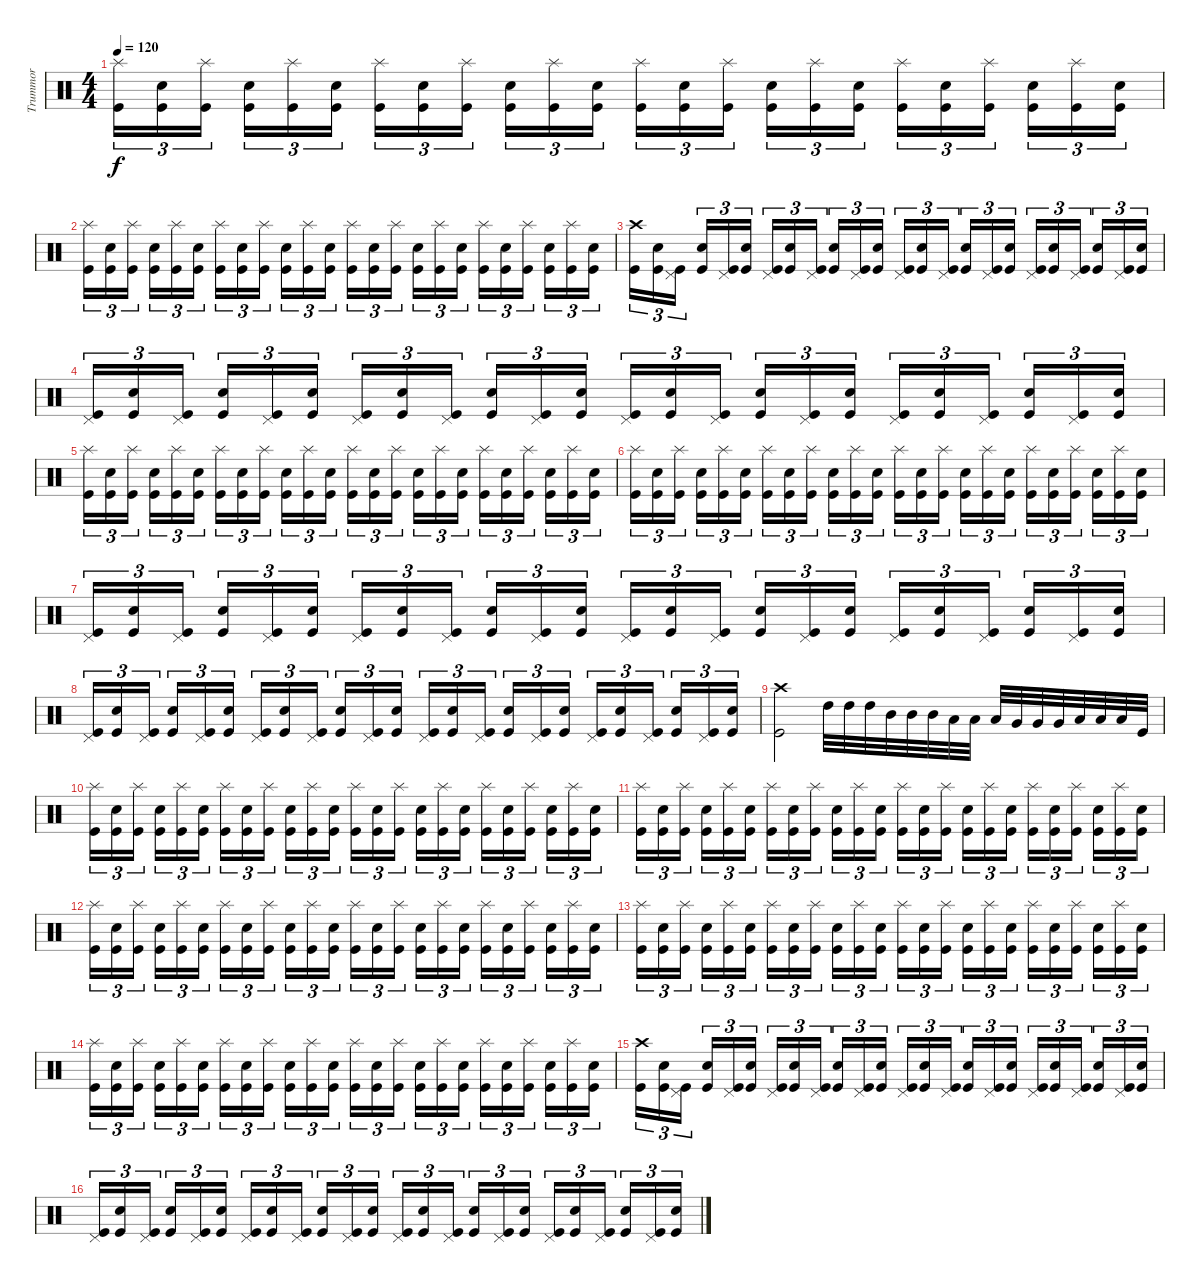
\track ("Trummor" "Trummor") {instrument percussion}
\staff {score}
\articulation defaults
\ts (4 4)
\tempo 120
\clef neutral
\ks c
("Splash (hit)" "Kick (hit)").16{tu (3 2) dy f} ("Electric Snare (hit)" "Kick (hit)").16{tu (3 2)} ("Splash (hit)" "Kick (hit)").16{tu (3 2)} ("Electric Snare (hit)" "Kick (hit)").16{tu (3 2)} ("Splash (hit)" "Kick (hit)").16{tu (3 2)} ("Electric Snare (hit)" "Kick (hit)").16{tu (3 2)} ("Splash (hit)" "Kick (hit)").16{tu (3 2)} ("Electric Snare (hit)" "Kick (hit)").16{tu (3 2)} ("Splash (hit)" "Kick (hit)").16{tu (3 2)} ("Electric Snare (hit)" "Kick (hit)").16{tu (3 2)} ("Splash (hit)" "Kick (hit)").16{tu (3 2)} ("Electric Snare (hit)" "Kick (hit)").16{tu (3 2)} ("Splash (hit)" "Kick (hit)").16{tu (3 2)} ("Electric Snare (hit)" "Kick (hit)").16{tu (3 2)} ("Splash (hit)" "Kick (hit)").16{tu (3 2)} ("Electric Snare (hit)" "Kick (hit)").16{tu (3 2)} ("Splash (hit)" "Kick (hit)").16{tu (3 2)} ("Electric Snare (hit)" "Kick (hit)").16{tu (3 2)} ("Splash (hit)" "Kick (hit)").16{tu (3 2)} ("Electric Snare (hit)" "Kick (hit)").16{tu (3 2)} ("Splash (hit)" "Kick (hit)").16{tu (3 2)} ("Electric Snare (hit)" "Kick (hit)").16{tu (3 2)} ("Splash (hit)" "Kick (hit)").16{tu (3 2)} ("Electric Snare (hit)" "Kick (hit)").16{tu (3 2)} |
("Splash (hit)" "Kick (hit)").16{tu (3 2)} ("Electric Snare (hit)" "Kick (hit)").16{tu (3 2)} ("Splash (hit)" "Kick (hit)").16{tu (3 2)} ("Electric Snare (hit)" "Kick (hit)").16{tu (3 2)} ("Splash (hit)" "Kick (hit)").16{tu (3 2)} ("Electric Snare (hit)" "Kick (hit)").16{tu (3 2)} ("Splash (hit)" "Kick (hit)").16{tu (3 2)} ("Electric Snare (hit)" "Kick (hit)").16{tu (3 2)} ("Splash (hit)" "Kick (hit)").16{tu (3 2)} ("Electric Snare (hit)" "Kick (hit)").16{tu (3 2)} ("Splash (hit)" "Kick (hit)").16{tu (3 2)} ("Electric Snare (hit)" "Kick (hit)").16{tu (3 2)} ("Splash (hit)" "Kick (hit)").16{tu (3 2)} ("Electric Snare (hit)" "Kick (hit)").16{tu (3 2)} ("Splash (hit)" "Kick (hit)").16{tu (3 2)} ("Electric Snare (hit)" "Kick (hit)").16{tu (3 2)} ("Splash (hit)" "Kick (hit)").16{tu (3 2)} ("Electric Snare (hit)" "Kick (hit)").16{tu (3 2)} ("Splash (hit)" "Kick (hit)").16{tu (3 2)} ("Electric Snare (hit)" "Kick (hit)").16{tu (3 2)} ("Splash (hit)" "Kick (hit)").16{tu (3 2)} ("Electric Snare (hit)" "Kick (hit)").16{tu (3 2)} ("Splash (hit)" "Kick (hit)").16{tu (3 2)} ("Electric Snare (hit)" "Kick (hit)").16{tu (3 2)} |
("Crash high (hit)" "Kick (hit)").16{tu (3 2)} ("Electric Snare (hit)" "Kick (hit)").16{tu (3 2)} ("Pedal Hi-Hat (hit)" "Kick (hit)").16{tu (3 2)} ("Electric Snare (hit)" "Kick (hit)").16{tu (3 2)} ("Pedal Hi-Hat (hit)" "Kick (hit)").16{tu (3 2)} ("Electric Snare (hit)" "Kick (hit)").16{tu (3 2)} ("Pedal Hi-Hat (hit)" "Kick (hit)").16{tu (3 2)} ("Electric Snare (hit)" "Kick (hit)").16{tu (3 2)} ("Pedal Hi-Hat (hit)" "Kick (hit)").16{tu (3 2)} ("Electric Snare (hit)" "Kick (hit)").16{tu (3 2)} ("Pedal Hi-Hat (hit)" "Kick (hit)").16{tu (3 2)} ("Electric Snare (hit)" "Kick (hit)").16{tu (3 2)} ("Pedal Hi-Hat (hit)" "Kick (hit)").16{tu (3 2)} ("Electric Snare (hit)" "Kick (hit)").16{tu (3 2)} ("Pedal Hi-Hat (hit)" "Kick (hit)").16{tu (3 2)} ("Electric Snare (hit)" "Kick (hit)").16{tu (3 2)} ("Pedal Hi-Hat (hit)" "Kick (hit)").16{tu (3 2)} ("Electric Snare (hit)" "Kick (hit)").16{tu (3 2)} ("Pedal Hi-Hat (hit)" "Kick (hit)").16{tu (3 2)} ("Electric Snare (hit)" "Kick (hit)").16{tu (3 2)} ("Pedal Hi-Hat (hit)" "Kick (hit)").16{tu (3 2)} ("Electric Snare (hit)" "Kick (hit)").16{tu (3 2)} ("Pedal Hi-Hat (hit)" "Kick (hit)").16{tu (3 2)} ("Electric Snare (hit)" "Kick (hit)").16{tu (3 2)} |
("Pedal Hi-Hat (hit)" "Kick (hit)").16{tu (3 2)} ("Electric Snare (hit)" "Kick (hit)").16{tu (3 2)} ("Pedal Hi-Hat (hit)" "Kick (hit)").16{tu (3 2)} ("Electric Snare (hit)" "Kick (hit)").16{tu (3 2)} ("Pedal Hi-Hat (hit)" "Kick (hit)").16{tu (3 2)} ("Electric Snare (hit)" "Kick (hit)").16{tu (3 2)} ("Pedal Hi-Hat (hit)" "Kick (hit)").16{tu (3 2)} ("Electric Snare (hit)" "Kick (hit)").16{tu (3 2)} ("Pedal Hi-Hat (hit)" "Kick (hit)").16{tu (3 2)} ("Electric Snare (hit)" "Kick (hit)").16{tu (3 2)} ("Pedal Hi-Hat (hit)" "Kick (hit)").16{tu (3 2)} ("Electric Snare (hit)" "Kick (hit)").16{tu (3 2)} ("Pedal Hi-Hat (hit)" "Kick (hit)").16{tu (3 2)} ("Electric Snare (hit)" "Kick (hit)").16{tu (3 2)} ("Pedal Hi-Hat (hit)" "Kick (hit)").16{tu (3 2)} ("Electric Snare (hit)" "Kick (hit)").16{tu (3 2)} ("Pedal Hi-Hat (hit)" "Kick (hit)").16{tu (3 2)} ("Electric Snare (hit)" "Kick (hit)").16{tu (3 2)} ("Pedal Hi-Hat (hit)" "Kick (hit)").16{tu (3 2)} ("Electric Snare (hit)" "Kick (hit)").16{tu (3 2)} ("Pedal Hi-Hat (hit)" "Kick (hit)").16{tu (3 2)} ("Electric Snare (hit)" "Kick (hit)").16{tu (3 2)} ("Pedal Hi-Hat (hit)" "Kick (hit)").16{tu (3 2)} ("Electric Snare (hit)" "Kick (hit)").16{tu (3 2)} |
("Splash (hit)" "Kick (hit)").16{tu (3 2)} ("Electric Snare (hit)" "Kick (hit)").16{tu (3 2)} ("Splash (hit)" "Kick (hit)").16{tu (3 2)} ("Electric Snare (hit)" "Kick (hit)").16{tu (3 2)} ("Splash (hit)" "Kick (hit)").16{tu (3 2)} ("Electric Snare (hit)" "Kick (hit)").16{tu (3 2)} ("Splash (hit)" "Kick (hit)").16{tu (3 2)} ("Electric Snare (hit)" "Kick (hit)").16{tu (3 2)} ("Splash (hit)" "Kick (hit)").16{tu (3 2)} ("Electric Snare (hit)" "Kick (hit)").16{tu (3 2)} ("Splash (hit)" "Kick (hit)").16{tu (3 2)} ("Electric Snare (hit)" "Kick (hit)").16{tu (3 2)} ("Splash (hit)" "Kick (hit)").16{tu (3 2)} ("Electric Snare (hit)" "Kick (hit)").16{tu (3 2)} ("Splash (hit)" "Kick (hit)").16{tu (3 2)} ("Electric Snare (hit)" "Kick (hit)").16{tu (3 2)} ("Splash (hit)" "Kick (hit)").16{tu (3 2)} ("Electric Snare (hit)" "Kick (hit)").16{tu (3 2)} ("Splash (hit)" "Kick (hit)").16{tu (3 2)} ("Electric Snare (hit)" "Kick (hit)").16{tu (3 2)} ("Splash (hit)" "Kick (hit)").16{tu (3 2)} ("Electric Snare (hit)" "Kick (hit)").16{tu (3 2)} ("Splash (hit)" "Kick (hit)").16{tu (3 2)} ("Electric Snare (hit)" "Kick (hit)").16{tu (3 2)} |
("Splash (hit)" "Kick (hit)").16{tu (3 2)} ("Electric Snare (hit)" "Kick (hit)").16{tu (3 2)} ("Splash (hit)" "Kick (hit)").16{tu (3 2)} ("Electric Snare (hit)" "Kick (hit)").16{tu (3 2)} ("Splash (hit)" "Kick (hit)").16{tu (3 2)} ("Electric Snare (hit)" "Kick (hit)").16{tu (3 2)} ("Splash (hit)" "Kick (hit)").16{tu (3 2)} ("Electric Snare (hit)" "Kick (hit)").16{tu (3 2)} ("Splash (hit)" "Kick (hit)").16{tu (3 2)} ("Electric Snare (hit)" "Kick (hit)").16{tu (3 2)} ("Splash (hit)" "Kick (hit)").16{tu (3 2)} ("Electric Snare (hit)" "Kick (hit)").16{tu (3 2)} ("Splash (hit)" "Kick (hit)").16{tu (3 2)} ("Electric Snare (hit)" "Kick (hit)").16{tu (3 2)} ("Splash (hit)" "Kick (hit)").16{tu (3 2)} ("Electric Snare (hit)" "Kick (hit)").16{tu (3 2)} ("Splash (hit)" "Kick (hit)").16{tu (3 2)} ("Electric Snare (hit)" "Kick (hit)").16{tu (3 2)} ("Splash (hit)" "Kick (hit)").16{tu (3 2)} ("Electric Snare (hit)" "Kick (hit)").16{tu (3 2)} ("Splash (hit)" "Kick (hit)").16{tu (3 2)} ("Electric Snare (hit)" "Kick (hit)").16{tu (3 2)} ("Splash (hit)" "Kick (hit)").16{tu (3 2)} ("Electric Snare (hit)" "Kick (hit)").16{tu (3 2)} |
("Pedal Hi-Hat (hit)" "Kick (hit)").16{tu (3 2)} ("Electric Snare (hit)" "Kick (hit)").16{tu (3 2)} ("Pedal Hi-Hat (hit)" "Kick (hit)").16{tu (3 2)} ("Electric Snare (hit)" "Kick (hit)").16{tu (3 2)} ("Pedal Hi-Hat (hit)" "Kick (hit)").16{tu (3 2)} ("Electric Snare (hit)" "Kick (hit)").16{tu (3 2)} ("Pedal Hi-Hat (hit)" "Kick (hit)").16{tu (3 2)} ("Electric Snare (hit)" "Kick (hit)").16{tu (3 2)} ("Pedal Hi-Hat (hit)" "Kick (hit)").16{tu (3 2)} ("Electric Snare (hit)" "Kick (hit)").16{tu (3 2)} ("Pedal Hi-Hat (hit)" "Kick (hit)").16{tu (3 2)} ("Electric Snare (hit)" "Kick (hit)").16{tu (3 2)} ("Pedal Hi-Hat (hit)" "Kick (hit)").16{tu (3 2)} ("Electric Snare (hit)" "Kick (hit)").16{tu (3 2)} ("Pedal Hi-Hat (hit)" "Kick (hit)").16{tu (3 2)} ("Electric Snare (hit)" "Kick (hit)").16{tu (3 2)} ("Pedal Hi-Hat (hit)" "Kick (hit)").16{tu (3 2)} ("Electric Snare (hit)" "Kick (hit)").16{tu (3 2)} ("Pedal Hi-Hat (hit)" "Kick (hit)").16{tu (3 2)} ("Electric Snare (hit)" "Kick (hit)").16{tu (3 2)} ("Pedal Hi-Hat (hit)" "Kick (hit)").16{tu (3 2)} ("Electric Snare (hit)" "Kick (hit)").16{tu (3 2)} ("Pedal Hi-Hat (hit)" "Kick (hit)").16{tu (3 2)} ("Electric Snare (hit)" "Kick (hit)").16{tu (3 2)} |
("Pedal Hi-Hat (hit)" "Kick (hit)").16{tu (3 2)} ("Electric Snare (hit)" "Kick (hit)").16{tu (3 2)} ("Pedal Hi-Hat (hit)" "Kick (hit)").16{tu (3 2)} ("Electric Snare (hit)" "Kick (hit)").16{tu (3 2)} ("Pedal Hi-Hat (hit)" "Kick (hit)").16{tu (3 2)} ("Electric Snare (hit)" "Kick (hit)").16{tu (3 2)} ("Pedal Hi-Hat (hit)" "Kick (hit)").16{tu (3 2)} ("Electric Snare (hit)" "Kick (hit)").16{tu (3 2)} ("Pedal Hi-Hat (hit)" "Kick (hit)").16{tu (3 2)} ("Electric Snare (hit)" "Kick (hit)").16{tu (3 2)} ("Pedal Hi-Hat (hit)" "Kick (hit)").16{tu (3 2)} ("Electric Snare (hit)" "Kick (hit)").16{tu (3 2)} ("Pedal Hi-Hat (hit)" "Kick (hit)").16{tu (3 2)} ("Electric Snare (hit)" "Kick (hit)").16{tu (3 2)} ("Pedal Hi-Hat (hit)" "Kick (hit)").16{tu (3 2)} ("Electric Snare (hit)" "Kick (hit)").16{tu (3 2)} ("Pedal Hi-Hat (hit)" "Kick (hit)").16{tu (3 2)} ("Electric Snare (hit)" "Kick (hit)").16{tu (3 2)} ("Pedal Hi-Hat (hit)" "Kick (hit)").16{tu (3 2)} ("Electric Snare (hit)" "Kick (hit)").16{tu (3 2)} ("Pedal Hi-Hat (hit)" "Kick (hit)").16{tu (3 2)} ("Electric Snare (hit)" "Kick (hit)").16{tu (3 2)} ("Pedal Hi-Hat (hit)" "Kick (hit)").16{tu (3 2)} ("Electric Snare (hit)" "Kick (hit)").16{tu (3 2)} |
("Crash high (hit)" "Kick (hit)").2 "High Tom (hit)".32 "High Tom (hit)".32 "High Tom (hit)".32 "Mid Tom (hit)".32 "Mid Tom (hit)".32 "Mid Tom (hit)".32 "Low Tom (hit)".32 "Low Tom (hit)".32 "Low Tom (hit)".32 "Very Low Tom (hit)".32 "Very Low Tom (hit)".32 "Very Low Tom (hit)".32 "Low Floor Tom (hit)".32 "Low Floor Tom (hit)".32 "Low Floor Tom (hit)".32 "Kick (hit)".32 |
("Splash (hit)" "Kick (hit)").16{tu (3 2)} ("Electric Snare (hit)" "Kick (hit)").16{tu (3 2)} ("Splash (hit)" "Kick (hit)").16{tu (3 2)} ("Electric Snare (hit)" "Kick (hit)").16{tu (3 2)} ("Splash (hit)" "Kick (hit)").16{tu (3 2)} ("Electric Snare (hit)" "Kick (hit)").16{tu (3 2)} ("Splash (hit)" "Kick (hit)").16{tu (3 2)} ("Electric Snare (hit)" "Kick (hit)").16{tu (3 2)} ("Splash (hit)" "Kick (hit)").16{tu (3 2)} ("Electric Snare (hit)" "Kick (hit)").16{tu (3 2)} ("Splash (hit)" "Kick (hit)").16{tu (3 2)} ("Electric Snare (hit)" "Kick (hit)").16{tu (3 2)} ("Splash (hit)" "Kick (hit)").16{tu (3 2)} ("Electric Snare (hit)" "Kick (hit)").16{tu (3 2)} ("Splash (hit)" "Kick (hit)").16{tu (3 2)} ("Electric Snare (hit)" "Kick (hit)").16{tu (3 2)} ("Splash (hit)" "Kick (hit)").16{tu (3 2)} ("Electric Snare (hit)" "Kick (hit)").16{tu (3 2)} ("Splash (hit)" "Kick (hit)").16{tu (3 2)} ("Electric Snare (hit)" "Kick (hit)").16{tu (3 2)} ("Splash (hit)" "Kick (hit)").16{tu (3 2)} ("Electric Snare (hit)" "Kick (hit)").16{tu (3 2)} ("Splash (hit)" "Kick (hit)").16{tu (3 2)} ("Electric Snare (hit)" "Kick (hit)").16{tu (3 2)} |
("Splash (hit)" "Kick (hit)").16{tu (3 2)} ("Electric Snare (hit)" "Kick (hit)").16{tu (3 2)} ("Splash (hit)" "Kick (hit)").16{tu (3 2)} ("Electric Snare (hit)" "Kick (hit)").16{tu (3 2)} ("Splash (hit)" "Kick (hit)").16{tu (3 2)} ("Electric Snare (hit)" "Kick (hit)").16{tu (3 2)} ("Splash (hit)" "Kick (hit)").16{tu (3 2)} ("Electric Snare (hit)" "Kick (hit)").16{tu (3 2)} ("Splash (hit)" "Kick (hit)").16{tu (3 2)} ("Electric Snare (hit)" "Kick (hit)").16{tu (3 2)} ("Splash (hit)" "Kick (hit)").16{tu (3 2)} ("Electric Snare (hit)" "Kick (hit)").16{tu (3 2)} ("Splash (hit)" "Kick (hit)").16{tu (3 2)} ("Electric Snare (hit)" "Kick (hit)").16{tu (3 2)} ("Splash (hit)" "Kick (hit)").16{tu (3 2)} ("Electric Snare (hit)" "Kick (hit)").16{tu (3 2)} ("Splash (hit)" "Kick (hit)").16{tu (3 2)} ("Electric Snare (hit)" "Kick (hit)").16{tu (3 2)} ("Splash (hit)" "Kick (hit)").16{tu (3 2)} ("Electric Snare (hit)" "Kick (hit)").16{tu (3 2)} ("Splash (hit)" "Kick (hit)").16{tu (3 2)} ("Electric Snare (hit)" "Kick (hit)").16{tu (3 2)} ("Splash (hit)" "Kick (hit)").16{tu (3 2)} ("Electric Snare (hit)" "Kick (hit)").16{tu (3 2)} |
("Splash (hit)" "Kick (hit)").16{tu (3 2)} ("Electric Snare (hit)" "Kick (hit)").16{tu (3 2)} ("Splash (hit)" "Kick (hit)").16{tu (3 2)} ("Electric Snare (hit)" "Kick (hit)").16{tu (3 2)} ("Splash (hit)" "Kick (hit)").16{tu (3 2)} ("Electric Snare (hit)" "Kick (hit)").16{tu (3 2)} ("Splash (hit)" "Kick (hit)").16{tu (3 2)} ("Electric Snare (hit)" "Kick (hit)").16{tu (3 2)} ("Splash (hit)" "Kick (hit)").16{tu (3 2)} ("Electric Snare (hit)" "Kick (hit)").16{tu (3 2)} ("Splash (hit)" "Kick (hit)").16{tu (3 2)} ("Electric Snare (hit)" "Kick (hit)").16{tu (3 2)} ("Splash (hit)" "Kick (hit)").16{tu (3 2)} ("Electric Snare (hit)" "Kick (hit)").16{tu (3 2)} ("Splash (hit)" "Kick (hit)").16{tu (3 2)} ("Electric Snare (hit)" "Kick (hit)").16{tu (3 2)} ("Splash (hit)" "Kick (hit)").16{tu (3 2)} ("Electric Snare (hit)" "Kick (hit)").16{tu (3 2)} ("Splash (hit)" "Kick (hit)").16{tu (3 2)} ("Electric Snare (hit)" "Kick (hit)").16{tu (3 2)} ("Splash (hit)" "Kick (hit)").16{tu (3 2)} ("Electric Snare (hit)" "Kick (hit)").16{tu (3 2)} ("Splash (hit)" "Kick (hit)").16{tu (3 2)} ("Electric Snare (hit)" "Kick (hit)").16{tu (3 2)} |
("Splash (hit)" "Kick (hit)").16{tu (3 2)} ("Electric Snare (hit)" "Kick (hit)").16{tu (3 2)} ("Splash (hit)" "Kick (hit)").16{tu (3 2)} ("Electric Snare (hit)" "Kick (hit)").16{tu (3 2)} ("Splash (hit)" "Kick (hit)").16{tu (3 2)} ("Electric Snare (hit)" "Kick (hit)").16{tu (3 2)} ("Splash (hit)" "Kick (hit)").16{tu (3 2)} ("Electric Snare (hit)" "Kick (hit)").16{tu (3 2)} ("Splash (hit)" "Kick (hit)").16{tu (3 2)} ("Electric Snare (hit)" "Kick (hit)").16{tu (3 2)} ("Splash (hit)" "Kick (hit)").16{tu (3 2)} ("Electric Snare (hit)" "Kick (hit)").16{tu (3 2)} ("Splash (hit)" "Kick (hit)").16{tu (3 2)} ("Electric Snare (hit)" "Kick (hit)").16{tu (3 2)} ("Splash (hit)" "Kick (hit)").16{tu (3 2)} ("Electric Snare (hit)" "Kick (hit)").16{tu (3 2)} ("Splash (hit)" "Kick (hit)").16{tu (3 2)} ("Electric Snare (hit)" "Kick (hit)").16{tu (3 2)} ("Splash (hit)" "Kick (hit)").16{tu (3 2)} ("Electric Snare (hit)" "Kick (hit)").16{tu (3 2)} ("Splash (hit)" "Kick (hit)").16{tu (3 2)} ("Electric Snare (hit)" "Kick (hit)").16{tu (3 2)} ("Splash (hit)" "Kick (hit)").16{tu (3 2)} ("Electric Snare (hit)" "Kick (hit)").16{tu (3 2)} |
("Splash (hit)" "Kick (hit)").16{tu (3 2)} ("Electric Snare (hit)" "Kick (hit)").16{tu (3 2)} ("Splash (hit)" "Kick (hit)").16{tu (3 2)} ("Electric Snare (hit)" "Kick (hit)").16{tu (3 2)} ("Splash (hit)" "Kick (hit)").16{tu (3 2)} ("Electric Snare (hit)" "Kick (hit)").16{tu (3 2)} ("Splash (hit)" "Kick (hit)").16{tu (3 2)} ("Electric Snare (hit)" "Kick (hit)").16{tu (3 2)} ("Splash (hit)" "Kick (hit)").16{tu (3 2)} ("Electric Snare (hit)" "Kick (hit)").16{tu (3 2)} ("Splash (hit)" "Kick (hit)").16{tu (3 2)} ("Electric Snare (hit)" "Kick (hit)").16{tu (3 2)} ("Splash (hit)" "Kick (hit)").16{tu (3 2)} ("Electric Snare (hit)" "Kick (hit)").16{tu (3 2)} ("Splash (hit)" "Kick (hit)").16{tu (3 2)} ("Electric Snare (hit)" "Kick (hit)").16{tu (3 2)} ("Splash (hit)" "Kick (hit)").16{tu (3 2)} ("Electric Snare (hit)" "Kick (hit)").16{tu (3 2)} ("Splash (hit)" "Kick (hit)").16{tu (3 2)} ("Electric Snare (hit)" "Kick (hit)").16{tu (3 2)} ("Splash (hit)" "Kick (hit)").16{tu (3 2)} ("Electric Snare (hit)" "Kick (hit)").16{tu (3 2)} ("Splash (hit)" "Kick (hit)").16{tu (3 2)} ("Electric Snare (hit)" "Kick (hit)").16{tu (3 2)} |
("Crash high (hit)" "Kick (hit)").16{tu (3 2)} ("Electric Snare (hit)" "Kick (hit)").16{tu (3 2)} ("Pedal Hi-Hat (hit)" "Kick (hit)").16{tu (3 2)} ("Electric Snare (hit)" "Kick (hit)").16{tu (3 2)} ("Pedal Hi-Hat (hit)" "Kick (hit)").16{tu (3 2)} ("Electric Snare (hit)" "Kick (hit)").16{tu (3 2)} ("Pedal Hi-Hat (hit)" "Kick (hit)").16{tu (3 2)} ("Electric Snare (hit)" "Kick (hit)").16{tu (3 2)} ("Pedal Hi-Hat (hit)" "Kick (hit)").16{tu (3 2)} ("Electric Snare (hit)" "Kick (hit)").16{tu (3 2)} ("Pedal Hi-Hat (hit)" "Kick (hit)").16{tu (3 2)} ("Electric Snare (hit)" "Kick (hit)").16{tu (3 2)} ("Pedal Hi-Hat (hit)" "Kick (hit)").16{tu (3 2)} ("Electric Snare (hit)" "Kick (hit)").16{tu (3 2)} ("Pedal Hi-Hat (hit)" "Kick (hit)").16{tu (3 2)} ("Electric Snare (hit)" "Kick (hit)").16{tu (3 2)} ("Pedal Hi-Hat (hit)" "Kick (hit)").16{tu (3 2)} ("Electric Snare (hit)" "Kick (hit)").16{tu (3 2)} ("Pedal Hi-Hat (hit)" "Kick (hit)").16{tu (3 2)} ("Electric Snare (hit)" "Kick (hit)").16{tu (3 2)} ("Pedal Hi-Hat (hit)" "Kick (hit)").16{tu (3 2)} ("Electric Snare (hit)" "Kick (hit)").16{tu (3 2)} ("Pedal Hi-Hat (hit)" "Kick (hit)").16{tu (3 2)} ("Electric Snare (hit)" "Kick (hit)").16{tu (3 2)} |
("Pedal Hi-Hat (hit)" "Kick (hit)").16{tu (3 2)} ("Electric Snare (hit)" "Kick (hit)").16{tu (3 2)} ("Pedal Hi-Hat (hit)" "Kick (hit)").16{tu (3 2)} ("Electric Snare (hit)" "Kick (hit)").16{tu (3 2)} ("Pedal Hi-Hat (hit)" "Kick (hit)").16{tu (3 2)} ("Electric Snare (hit)" "Kick (hit)").16{tu (3 2)} ("Pedal Hi-Hat (hit)" "Kick (hit)").16{tu (3 2)} ("Electric Snare (hit)" "Kick (hit)").16{tu (3 2)} ("Pedal Hi-Hat (hit)" "Kick (hit)").16{tu (3 2)} ("Electric Snare (hit)" "Kick (hit)").16{tu (3 2)} ("Pedal Hi-Hat (hit)" "Kick (hit)").16{tu (3 2)} ("Electric Snare (hit)" "Kick (hit)").16{tu (3 2)} ("Pedal Hi-Hat (hit)" "Kick (hit)").16{tu (3 2)} ("Electric Snare (hit)" "Kick (hit)").16{tu (3 2)} ("Pedal Hi-Hat (hit)" "Kick (hit)").16{tu (3 2)} ("Electric Snare (hit)" "Kick (hit)").16{tu (3 2)} ("Pedal Hi-Hat (hit)" "Kick (hit)").16{tu (3 2)} ("Electric Snare (hit)" "Kick (hit)").16{tu (3 2)} ("Pedal Hi-Hat (hit)" "Kick (hit)").16{tu (3 2)} ("Electric Snare (hit)" "Kick (hit)").16{tu (3 2)} ("Pedal Hi-Hat (hit)" "Kick (hit)").16{tu (3 2)} ("Electric Snare (hit)" "Kick (hit)").16{tu (3 2)} ("Pedal Hi-Hat (hit)" "Kick (hit)").16{tu (3 2)} ("Electric Snare (hit)" "Kick (hit)").16{tu (3 2)}
